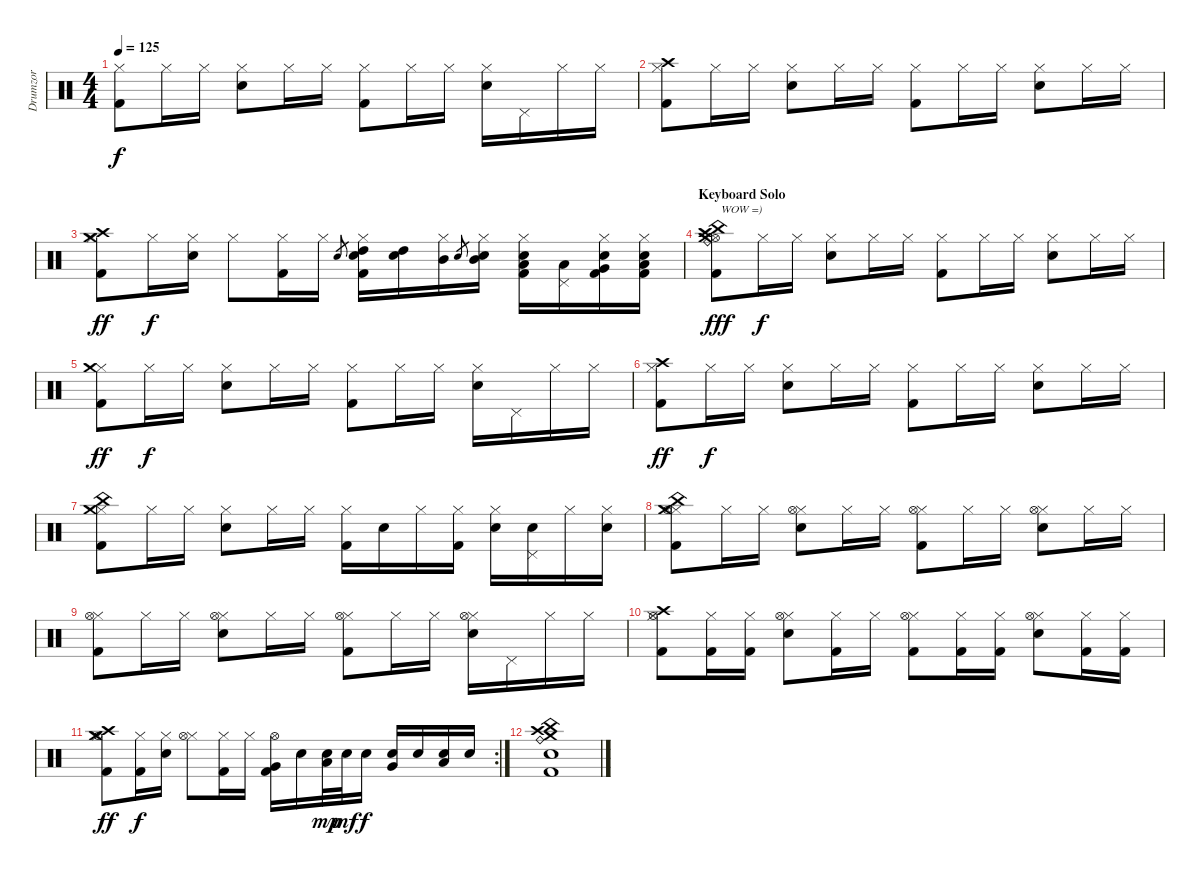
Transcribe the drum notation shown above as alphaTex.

\track ("Drumzor" "Drumzor") {instrument percussion}
\staff {score}
\articulation defaults
\ts (4 4)
\tempo 125
\clef neutral
\ks c
("Hi-Hat (closed)" "Kick (hit) 2").8{dy f} "Hi-Hat (closed)".16 "Hi-Hat (closed)".16 ("Hi-Hat (closed)" "Electric Snare (hit)").8 "Hi-Hat (closed)".16 "Hi-Hat (closed)".16 ("Hi-Hat (closed)" "Kick (hit) 2").8 "Hi-Hat (closed)".16 "Hi-Hat (closed)".16 ("Hi-Hat (closed)" "Electric Snare (hit)").16 "Pedal Hi-Hat (hit)".16 "Hi-Hat (closed)".16 "Hi-Hat (closed)".16 |
("Hi-Hat (closed)" "Crash high (hit)" "Kick (hit) 2").8 "Hi-Hat (closed)".16 "Hi-Hat (closed)".16 ("Hi-Hat (closed)" "Electric Snare (hit)").8 "Hi-Hat (closed)".16 "Hi-Hat (closed)".16 ("Hi-Hat (closed)" "Kick (hit) 2").8 "Hi-Hat (closed)".16 "Hi-Hat (closed)".16 ("Hi-Hat (closed)" "Electric Snare (hit)").8 "Hi-Hat (closed)".16 "Hi-Hat (closed)".16 |
("Hi-Hat (closed)" "Crash medium (hit)" "Crash high (hit)" "Kick (hit) 2").8{dy ff} "Hi-Hat (closed)".16{dy f} ("Hi-Hat (closed)" "Electric Snare (hit)").16 "Hi-Hat (closed)".8 ("Hi-Hat (closed)" "Kick (hit) 2").16 "Hi-Hat (closed)".16 "Snare (hit) 2".8{gr} ("Hi-Hat (closed)" "High Tom (hit)" "Electric Snare (hit)" "Kick (hit) 2").16 ("High Tom (hit)" "Electric Snare (hit)").16 ("Hi-Hat (closed)" "Mid Tom (hit)").16 "Snare (hit) 2".8{gr} ("Hi-Hat (closed)" "Mid Tom (hit)" "Electric Snare (hit)").16 ("Hi-Hat (closed)" "Low Tom (hit)" "Electric Snare (hit)" "Kick (hit) 2").16 ("Pedal Hi-Hat (hit)" "Low Tom (hit)").16 ("Hi-Hat (closed)" "Very Low Tom (hit)" "Electric Snare (hit)" "Kick (hit) 2").16 ("Hi-Hat (closed)" "Low Floor Tom (hit)" "Electric Snare (hit)" "Kick (hit) 2").16 |
\section ("" "Keyboard Solo")
("Hi-Hat (open)" "China (hit)" "Crash medium (hit)" "Crash high (hit)" "Ride (bell)" "Kick (hit) 2").8{txt "WOW =)" dy fff volume 15} "Hi-Hat (closed)".16{dy f} "Hi-Hat (closed)".16 ("Hi-Hat (closed)" "Electric Snare (hit)").8 "Hi-Hat (closed)".16 "Hi-Hat (closed)".16 ("Hi-Hat (closed)" "Kick (hit) 2").8 "Hi-Hat (closed)".16 "Hi-Hat (closed)".16 ("Hi-Hat (closed)" "Electric Snare (hit)").8 "Hi-Hat (closed)".16 "Hi-Hat (closed)".16 |
("Hi-Hat (closed)" "Crash medium (hit)" "Kick (hit) 2").8{dy ff} "Hi-Hat (closed)".16{dy f} "Hi-Hat (closed)".16 ("Hi-Hat (closed)" "Electric Snare (hit)").8 "Hi-Hat (closed)".16 "Hi-Hat (closed)".16 ("Hi-Hat (closed)" "Kick (hit) 2").8 "Hi-Hat (closed)".16 "Hi-Hat (closed)".16 ("Hi-Hat (closed)" "Electric Snare (hit)").16 "Pedal Hi-Hat (hit)".16 "Hi-Hat (closed)".16 "Hi-Hat (closed)".16 |
("Hi-Hat (closed)" "Crash high (hit)" "Kick (hit) 2").8{dy ff} "Hi-Hat (closed)".16{dy f} "Hi-Hat (closed)".16 ("Hi-Hat (closed)" "Electric Snare (hit)").8 "Hi-Hat (closed)".16 "Hi-Hat (closed)".16 ("Hi-Hat (closed)" "Kick (hit) 2").8 "Hi-Hat (closed)".16 "Hi-Hat (closed)".16 ("Hi-Hat (closed)" "Electric Snare (hit)").8 "Hi-Hat (closed)".16 "Hi-Hat (closed)".16 |
("Hi-Hat (closed)" "Crash medium (hit)" "China (hit)" "Kick (hit) 2").8 "Hi-Hat (closed)".16 "Hi-Hat (closed)".16 ("Hi-Hat (closed)" "Electric Snare (hit)").8 "Hi-Hat (closed)".16 "Hi-Hat (closed)".16 ("Hi-Hat (closed)" "Kick (hit) 2").16 "Electric Snare (hit)".16 "Hi-Hat (closed)".16 ("Hi-Hat (closed)" "Kick (hit) 2").16 ("Hi-Hat (closed)" "Electric Snare (hit)").16 ("Pedal Hi-Hat (hit)" "Electric Snare (hit)").16 "Hi-Hat (closed)".16 ("Hi-Hat (closed)" "Electric Snare (hit)").16 |
("Hi-Hat (closed)" "China (hit)" "Crash medium (hit)" "Hi-Hat (open)" "Kick (hit) 2").8 "Hi-Hat (closed)".16 "Hi-Hat (closed)".16 ("Hi-Hat (closed)" "Hi-Hat (open)" "Electric Snare (hit)").8 "Hi-Hat (closed)".16 "Hi-Hat (closed)".16 ("Hi-Hat (closed)" "Hi-Hat (open)" "Kick (hit) 2").8 "Hi-Hat (closed)".16 "Hi-Hat (closed)".16 ("Hi-Hat (closed)" "Hi-Hat (open)" "Electric Snare (hit)").8 "Hi-Hat (closed)".16 "Hi-Hat (closed)".16 |
("Hi-Hat (closed)" "Hi-Hat (open)" "Kick (hit) 2").8 "Hi-Hat (closed)".16 "Hi-Hat (closed)".16 ("Hi-Hat (closed)" "Hi-Hat (open)" "Electric Snare (hit)").8 "Hi-Hat (closed)".16 "Hi-Hat (closed)".16 ("Hi-Hat (closed)" "Hi-Hat (open)" "Kick (hit) 2").8 "Hi-Hat (closed)".16 "Hi-Hat (closed)".16 ("Hi-Hat (closed)" "Hi-Hat (open)" "Electric Snare (hit)").16 "Pedal Hi-Hat (hit)".16 "Hi-Hat (closed)".16 "Hi-Hat (closed)".16 |
("Hi-Hat (closed)" "Crash high (hit)" "Hi-Hat (open)" "Kick (hit) 2").8 ("Hi-Hat (closed)" "Kick (hit) 2").16 ("Hi-Hat (closed)" "Kick (hit) 2").16 ("Hi-Hat (closed)" "Hi-Hat (open)" "Electric Snare (hit)").8 ("Hi-Hat (closed)" "Kick (hit) 2").16 "Hi-Hat (closed)".16 ("Hi-Hat (closed)" "Hi-Hat (open)" "Kick (hit) 2").8 ("Hi-Hat (closed)" "Kick (hit) 2").16 ("Hi-Hat (closed)" "Kick (hit) 2").16 ("Hi-Hat (closed)" "Hi-Hat (open)" "Electric Snare (hit)").8 ("Hi-Hat (closed)" "Kick (hit) 2").16 ("Hi-Hat (closed)" "Kick (hit) 2").16 |
\rc 2
("Hi-Hat (closed)" "Crash medium (hit)" "Crash high (hit)" "Hi-Hat (open)" "Kick (hit) 2").8{dy ff} ("Hi-Hat (closed)" "Kick (hit) 2").16{dy f} ("Hi-Hat (closed)" "Electric Snare (hit)").16 ("Hi-Hat (closed)" "Hi-Hat (open)").8 ("Hi-Hat (closed)" "Kick (hit) 2").16 "Hi-Hat (closed)".16 ("Very Low Tom (hit)" "Hi-Hat (open)" "Kick (hit) 2").16 "Electric Snare (hit)".16 ("Low Tom (hit)" "Electric Snare (hit)").32{dy mp} "Electric Snare (hit)".32{dy mf} "Electric Snare (hit)".16{dy f} ("Very Low Tom (hit)" "Electric Snare (hit)").16 "Electric Snare (hit)".16 ("Low Floor Tom (hit)" "Electric Snare (hit)").16 "Electric Snare (hit)".16 |
\section ("" "")
("Crash medium (hit)" "Crash high (hit)" "China (hit)" "Ride (bell)" "Electric Snare (hit)" "Kick (hit) 2").1
